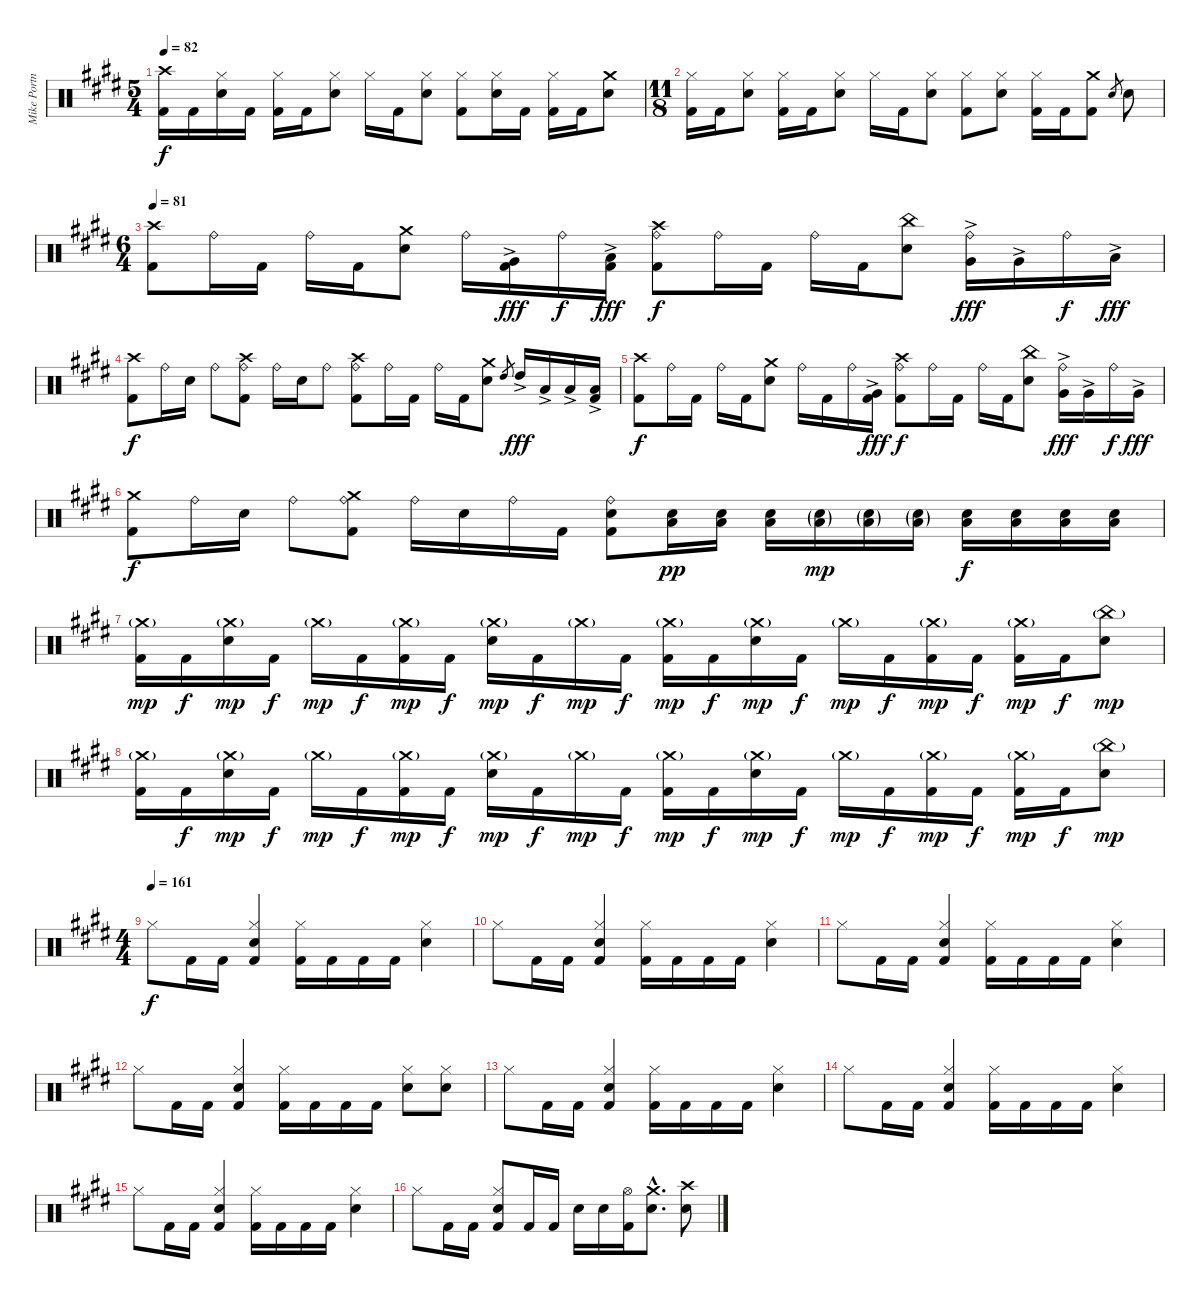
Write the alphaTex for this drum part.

\track ("Mike Portnoy" "Mike Portn") {instrument percussion}
\staff {score}
\articulation defaults
\ts (5 4)
\tempo 82
\clef neutral
\ks e
("Crash high (hit)" "Kick (hit) 2").16{dy f} "Kick (hit) 2".16 ("Hi-Hat (closed)" "Snare (hit) 2").16 "Kick (hit) 2".16 ("Hi-Hat (closed)" "Kick (hit) 2").16 "Kick (hit) 2".16 ("Hi-Hat (closed)" "Snare (hit) 2").8 "Hi-Hat (closed)".16 "Kick (hit) 2".16 ("Hi-Hat (closed)" "Snare (hit) 2").8 ("Hi-Hat (closed)" "Kick (hit) 2").8 ("Hi-Hat (closed)" "Snare (hit) 2").16 "Kick (hit) 2".16 ("Hi-Hat (closed)" "Kick (hit) 2").16 "Kick (hit) 2".16 ("Crash medium (hit)" "Snare (hit) 2").8 |
\ts (11 8)
("Hi-Hat (closed)" "Kick (hit) 2").16 "Kick (hit) 2".16 ("Hi-Hat (closed)" "Snare (hit) 2").8 ("Hi-Hat (closed)" "Kick (hit) 2").16 "Kick (hit) 2".16 ("Hi-Hat (closed)" "Snare (hit) 2").8 "Hi-Hat (closed)".16 "Kick (hit) 2".16 ("Hi-Hat (closed)" "Snare (hit) 2").8 ("Hi-Hat (closed)" "Kick (hit) 2").8 ("Hi-Hat (closed)" "Snare (hit) 2").8 ("Hi-Hat (closed)" "Kick (hit) 2").16 "Kick (hit) 2".16 ("Crash medium (hit)" "Kick (hit) 2").8 "Snare (hit) 2".8{gr} "Snare (hit) 2".8 |
\ts (6 4)
\tempo 81
("Crash high (hit)" "Kick (hit) 2").8 "Ride (bell)".16 "Kick (hit) 2".16 "Ride (bell)".16 "Kick (hit) 2".16 ("Crash medium (hit)" "Snare (hit) 2").8 "Ride (bell)".16 ("Very Low Tom (hit)"{ac} "Kick (hit) 2").16{dy fff} "Ride (bell)".16{dy f} ("Low Tom (hit)"{ac} "Kick (hit) 2").16{dy fff} ("Ride (bell)" "Crash high (hit)" "Kick (hit) 2").8{dy f} "Ride (bell)".16 "Kick (hit) 2".16 "Ride (bell)".16 "Kick (hit) 2".16 ("China (hit)" "Snare (hit) 2").8 ("Ride (bell)" "Very Low Tom (hit)"{ac}).16{dy fff} "Very Low Tom (hit)"{ac}.16 "Ride (bell)".16{dy f} "Low Floor Tom (hit)"{ac}.16{dy fff} |
("Crash high (hit)" "Kick (hit) 2").8{dy f} "Ride (bell)".16 "Snare (hit) 2".16 "Ride (bell)".8 ("Ride (bell)" "Crash high (hit)" "Kick (hit) 2").8 "Ride (bell)".16 "Snare (hit) 2".16 "Ride (bell)".8 ("Ride (bell)" "Crash high (hit)" "Kick (hit) 2").8 "Ride (bell)".16 "Kick (hit) 2".16 "Ride (bell)".16 "Kick (hit) 2".16 ("Crash medium (hit)" "Snare (hit) 2").8 "High Tom (hit)".8{gr} "High Tom (hit)"{ac}.16{dy fff} "Low Tom (hit)"{ac}.16 "Low Tom (hit)"{ac}.16 ("Low Floor Tom (hit)"{ac} "Kick (hit) 2").16 |
("Crash high (hit)" "Kick (hit) 2").8{dy f} "Ride (bell)".16 "Kick (hit) 2".16 "Ride (bell)".16 "Kick (hit) 2".16 ("Crash medium (hit)" "Snare (hit) 2").8 "Ride (bell)".16 "Kick (hit) 2".16 "Ride (bell)".16 ("Very Low Tom (hit)"{ac} "Kick (hit) 2").16{dy fff} ("Ride (bell)" "Crash high (hit)" "Kick (hit) 2").8{dy f} "Ride (bell)".16 "Kick (hit) 2".16 "Ride (bell)".16 "Kick (hit) 2".16 ("China (hit)" "Snare (hit) 2").8 ("Ride (bell)" "Very Low Tom (hit)"{ac}).16{dy fff} "Very Low Tom (hit)"{ac}.16 "Ride (bell)".16{dy f} "Very Low Tom (hit)"{ac}.16{dy fff} |
("Crash medium (hit)" "Kick (hit) 2").8{dy f} "Ride (bell)".16 "Snare (hit) 2".16 "Ride (bell)".8 ("Ride (bell)" "Crash medium (hit)" "Kick (hit) 2").8 "Ride (bell)".16 "Snare (hit) 2".16 "Ride (bell)".16 "Kick (hit) 2".16 ("Ride (bell)" "Snare (hit) 2" "Kick (hit) 2").8 ("Snare (hit) 2" "Low Floor Tom (hit)").16{dy pp} ("Snare (hit) 2" "Low Floor Tom (hit)").16 ("Snare (hit) 2" "Low Floor Tom (hit)").16 ("Snare (hit) 2"{g} "Low Floor Tom (hit)"{g}).16{dy mp} ("Snare (hit) 2"{g} "Low Floor Tom (hit)"{g}).16 ("Snare (hit) 2"{g} "Low Floor Tom (hit)"{g}).16 ("Snare (hit) 2" "Low Floor Tom (hit)").16{dy f} ("Snare (hit) 2" "Low Floor Tom (hit)").16 ("Snare (hit) 2" "Low Floor Tom (hit)").16 ("Snare (hit) 2" "Low Floor Tom (hit)").16 |
("Crash medium (hit)"{g} "Kick (hit) 2").16{dy mp} "Kick (hit) 2".16{dy f} ("Crash medium (hit)"{g} "Snare (hit) 2").16{dy mp} "Kick (hit) 2".16{dy f} "Crash medium (hit)"{g}.16{dy mp} "Kick (hit) 2".16{dy f} ("Crash medium (hit)"{g} "Kick (hit) 2").16{dy mp} "Kick (hit) 2".16{dy f} ("Crash medium (hit)"{g} "Snare (hit) 2").16{dy mp} "Kick (hit) 2".16{dy f} "Crash medium (hit)"{g}.16{dy mp} "Kick (hit) 2".16{dy f} ("Crash medium (hit)"{g} "Kick (hit) 2").16{dy mp} "Kick (hit) 2".16{dy f} ("Crash medium (hit)"{g} "Snare (hit) 2").16{dy mp} "Kick (hit) 2".16{dy f} "Crash medium (hit)"{g}.16{dy mp} "Kick (hit) 2".16{dy f} ("Crash medium (hit)"{g} "Kick (hit) 2").16{dy mp} "Kick (hit) 2".16{dy f} ("Crash medium (hit)"{g} "Kick (hit) 2").16{dy mp} "Kick (hit) 2".16{dy f} ("China (hit)"{g} "Snare (hit) 2").8{dy mp} |
("Crash medium (hit)"{g} "Kick (hit) 2").16 "Kick (hit) 2".16{dy f} ("Crash medium (hit)"{g} "Snare (hit) 2").16{dy mp} "Kick (hit) 2".16{dy f} "Crash medium (hit)"{g}.16{dy mp} "Kick (hit) 2".16{dy f} ("Crash medium (hit)"{g} "Kick (hit) 2").16{dy mp} "Kick (hit) 2".16{dy f} ("Crash medium (hit)"{g} "Snare (hit) 2").16{dy mp} "Kick (hit) 2".16{dy f} "Crash medium (hit)"{g}.16{dy mp} "Kick (hit) 2".16{dy f} ("Crash medium (hit)"{g} "Kick (hit) 2").16{dy mp} "Kick (hit) 2".16{dy f} ("Crash medium (hit)"{g} "Snare (hit) 2").16{dy mp} "Kick (hit) 2".16{dy f} "Crash medium (hit)"{g}.16{dy mp} "Kick (hit) 2".16{dy f} ("Crash medium (hit)"{g} "Kick (hit) 2").16{dy mp} "Kick (hit) 2".16{dy f} ("Crash medium (hit)"{g} "Kick (hit) 2").16{dy mp} "Kick (hit) 2".16{dy f} ("China (hit)"{g} "Snare (hit) 2").8{dy mp} |
\ts (4 4)
\tempo (161)
"Hi-Hat (closed)".8{dy f} "Kick (hit) 2".16 "Kick (hit) 2".16 ("Hi-Hat (closed)" "Snare (hit) 2" "Kick (hit) 2").4 ("Hi-Hat (closed)" "Kick (hit) 2").16 "Kick (hit) 2".16 "Kick (hit) 2".16 "Kick (hit) 2".16 ("Hi-Hat (closed)" "Snare (hit) 2").4 |
"Hi-Hat (closed)".8 "Kick (hit) 2".16 "Kick (hit) 2".16 ("Hi-Hat (closed)" "Snare (hit) 2" "Kick (hit) 2").4 ("Hi-Hat (closed)" "Kick (hit) 2").16 "Kick (hit) 2".16 "Kick (hit) 2".16 "Kick (hit) 2".16 ("Hi-Hat (closed)" "Snare (hit) 2").4 |
"Hi-Hat (closed)".8 "Kick (hit) 2".16 "Kick (hit) 2".16 ("Hi-Hat (closed)" "Snare (hit) 2" "Kick (hit) 2").4 ("Hi-Hat (closed)" "Kick (hit) 2").16 "Kick (hit) 2".16 "Kick (hit) 2".16 "Kick (hit) 2".16 ("Hi-Hat (closed)" "Snare (hit) 2").4 |
"Hi-Hat (closed)".8 "Kick (hit) 2".16 "Kick (hit) 2".16 ("Hi-Hat (closed)" "Snare (hit) 2" "Kick (hit) 2").4 ("Hi-Hat (closed)" "Kick (hit) 2").16 "Kick (hit) 2".16 "Kick (hit) 2".16 "Kick (hit) 2".16 ("Hi-Hat (closed)" "Snare (hit) 2").8 ("Hi-Hat (closed)" "Snare (hit) 2").8 |
"Hi-Hat (closed)".8 "Kick (hit) 2".16 "Kick (hit) 2".16 ("Hi-Hat (closed)" "Snare (hit) 2" "Kick (hit) 2").4 ("Hi-Hat (closed)" "Kick (hit) 2").16 "Kick (hit) 2".16 "Kick (hit) 2".16 "Kick (hit) 2".16 ("Hi-Hat (closed)" "Snare (hit) 2").4 |
"Hi-Hat (closed)".8 "Kick (hit) 2".16 "Kick (hit) 2".16 ("Hi-Hat (closed)" "Snare (hit) 2" "Kick (hit) 2").4 ("Hi-Hat (closed)" "Kick (hit) 2").16 "Kick (hit) 2".16 "Kick (hit) 2".16 "Kick (hit) 2".16 ("Hi-Hat (closed)" "Snare (hit) 2").4 |
"Hi-Hat (closed)".8 "Kick (hit) 2".16 "Kick (hit) 2".16 ("Hi-Hat (closed)" "Snare (hit) 2" "Kick (hit) 2").4 ("Hi-Hat (closed)" "Kick (hit) 2").16 "Kick (hit) 2".16 "Kick (hit) 2".16 "Kick (hit) 2".16 ("Hi-Hat (closed)" "Snare (hit) 2").4 |
"Hi-Hat (closed)".8 "Kick (hit) 2".16 "Kick (hit) 2".16 ("Hi-Hat (closed)" "Snare (hit) 2" "Kick (hit) 2").8 "Kick (hit) 2".16 "Kick (hit) 2".16 "Snare (hit) 2".16 "Snare (hit) 2".16 ("Hi-Hat (open)" "Kick (hit) 2").16 ("Crash medium (hit)"{hac} "Snare (hit) 2"{hac}).8{d} ("Crash high (hit)" "Snare (hit) 2").8
